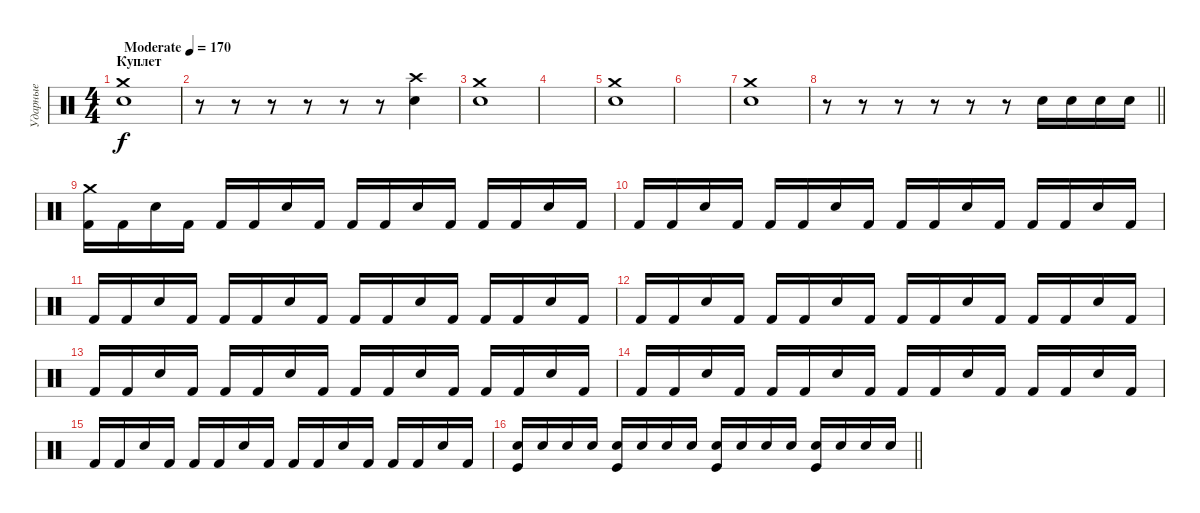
\track ("Ударные" "Ударные") {instrument percussion}
\staff {score}
\articulation defaults
\ts (4 4)
\section ("" "Куплет")
\tempo (170 "Moderate")
\clef neutral
\ks c
("Crash medium (hit)" "Snare (hit) 2").1{dy f} |
r.8 r.8 r.8 r.8 r.8 r.8 ("Crash high (hit)" "Snare (hit) 2").4 |
("Crash medium (hit)" "Snare (hit) 2").1 |
|
("Crash medium (hit)" "Snare (hit) 2").1 |
|
("Crash medium (hit)" "Snare (hit) 2").1 |
\barLineRight lightlight
r.8 r.8 r.8 r.8 r.8 r.8 "Snare (hit) 2".16 "Snare (hit) 2".16 "Snare (hit) 2".16 "Snare (hit) 2".16 |
\section ("" "")
("Crash medium (hit)" "Kick (hit) 2").16 "Kick (hit) 2".16 "Snare (hit) 2".16 "Kick (hit) 2".16 "Kick (hit) 2".16 "Kick (hit) 2".16 "Snare (hit) 2".16 "Kick (hit) 2".16 "Kick (hit) 2".16 "Kick (hit) 2".16 "Snare (hit) 2".16 "Kick (hit) 2".16 "Kick (hit) 2".16 "Kick (hit) 2".16 "Snare (hit) 2".16 "Kick (hit) 2".16 |
"Kick (hit) 2".16 "Kick (hit) 2".16 "Snare (hit) 2".16 "Kick (hit) 2".16 "Kick (hit) 2".16 "Kick (hit) 2".16 "Snare (hit) 2".16 "Kick (hit) 2".16 "Kick (hit) 2".16 "Kick (hit) 2".16 "Snare (hit) 2".16 "Kick (hit) 2".16 "Kick (hit) 2".16 "Kick (hit) 2".16 "Snare (hit) 2".16 "Kick (hit) 2".16 |
"Kick (hit) 2".16 "Kick (hit) 2".16 "Snare (hit) 2".16 "Kick (hit) 2".16 "Kick (hit) 2".16 "Kick (hit) 2".16 "Snare (hit) 2".16 "Kick (hit) 2".16 "Kick (hit) 2".16 "Kick (hit) 2".16 "Snare (hit) 2".16 "Kick (hit) 2".16 "Kick (hit) 2".16 "Kick (hit) 2".16 "Snare (hit) 2".16 "Kick (hit) 2".16 |
"Kick (hit) 2".16 "Kick (hit) 2".16 "Snare (hit) 2".16 "Kick (hit) 2".16 "Kick (hit) 2".16 "Kick (hit) 2".16 "Snare (hit) 2".16 "Kick (hit) 2".16 "Kick (hit) 2".16 "Kick (hit) 2".16 "Snare (hit) 2".16 "Kick (hit) 2".16 "Kick (hit) 2".16 "Kick (hit) 2".16 "Snare (hit) 2".16 "Kick (hit) 2".16 |
"Kick (hit) 2".16 "Kick (hit) 2".16 "Snare (hit) 2".16 "Kick (hit) 2".16 "Kick (hit) 2".16 "Kick (hit) 2".16 "Snare (hit) 2".16 "Kick (hit) 2".16 "Kick (hit) 2".16 "Kick (hit) 2".16 "Snare (hit) 2".16 "Kick (hit) 2".16 "Kick (hit) 2".16 "Kick (hit) 2".16 "Snare (hit) 2".16 "Kick (hit) 2".16 |
"Kick (hit) 2".16 "Kick (hit) 2".16 "Snare (hit) 2".16 "Kick (hit) 2".16 "Kick (hit) 2".16 "Kick (hit) 2".16 "Snare (hit) 2".16 "Kick (hit) 2".16 "Kick (hit) 2".16 "Kick (hit) 2".16 "Snare (hit) 2".16 "Kick (hit) 2".16 "Kick (hit) 2".16 "Kick (hit) 2".16 "Snare (hit) 2".16 "Kick (hit) 2".16 |
"Kick (hit) 2".16 "Kick (hit) 2".16 "Snare (hit) 2".16 "Kick (hit) 2".16 "Kick (hit) 2".16 "Kick (hit) 2".16 "Snare (hit) 2".16 "Kick (hit) 2".16 "Kick (hit) 2".16 "Kick (hit) 2".16 "Snare (hit) 2".16 "Kick (hit) 2".16 "Kick (hit) 2".16 "Kick (hit) 2".16 "Snare (hit) 2".16 "Kick (hit) 2".16 |
\barLineRight lightlight
("Snare (hit) 2" "Kick (hit)").16 "Snare (hit) 2".16 "Snare (hit) 2".16 "Snare (hit) 2".16 ("Snare (hit) 2" "Kick (hit)").16 "Snare (hit) 2".16 "Snare (hit) 2".16 "Snare (hit) 2".16 ("Snare (hit) 2" "Kick (hit)").16 "Snare (hit) 2".16 "Snare (hit) 2".16 "Snare (hit) 2".16 ("Snare (hit) 2" "Kick (hit)").16 "Snare (hit) 2".16 "Snare (hit) 2".16 "Snare (hit) 2".16
